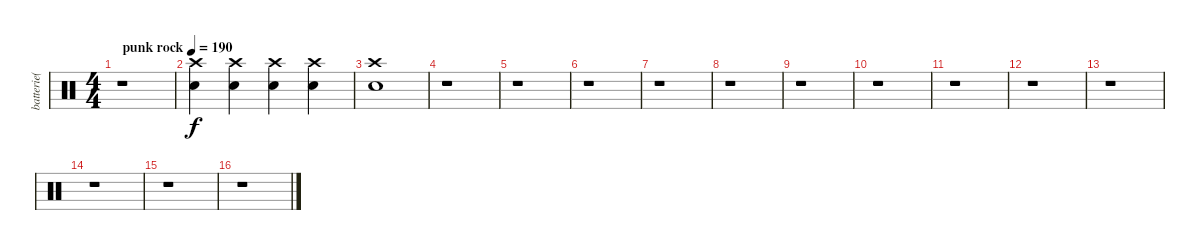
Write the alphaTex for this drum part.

\track ("batterie( Byron McMackin )" "batterie( ") {instrument percussion}
\staff {score}
\articulation defaults
\ts (4 4)
\tempo (190 "punk rock")
\clef neutral
\ks c
r.1{dy f} |
("Crash high (hit)" "Snare (hit) 2").4 ("Crash high (hit)" "Snare (hit) 2").4 ("Crash high (hit)" "Snare (hit) 2").4 ("Crash high (hit)" "Snare (hit) 2").4 |
("Crash high (hit)" "Snare (hit) 2").1 |
r.1 |
r.1 |
r.1 |
r.1 |
r.1 |
r.1 |
r.1 |
r.1 |
r.1 |
r.1 |
r.1 |
r.1 |
r.1
